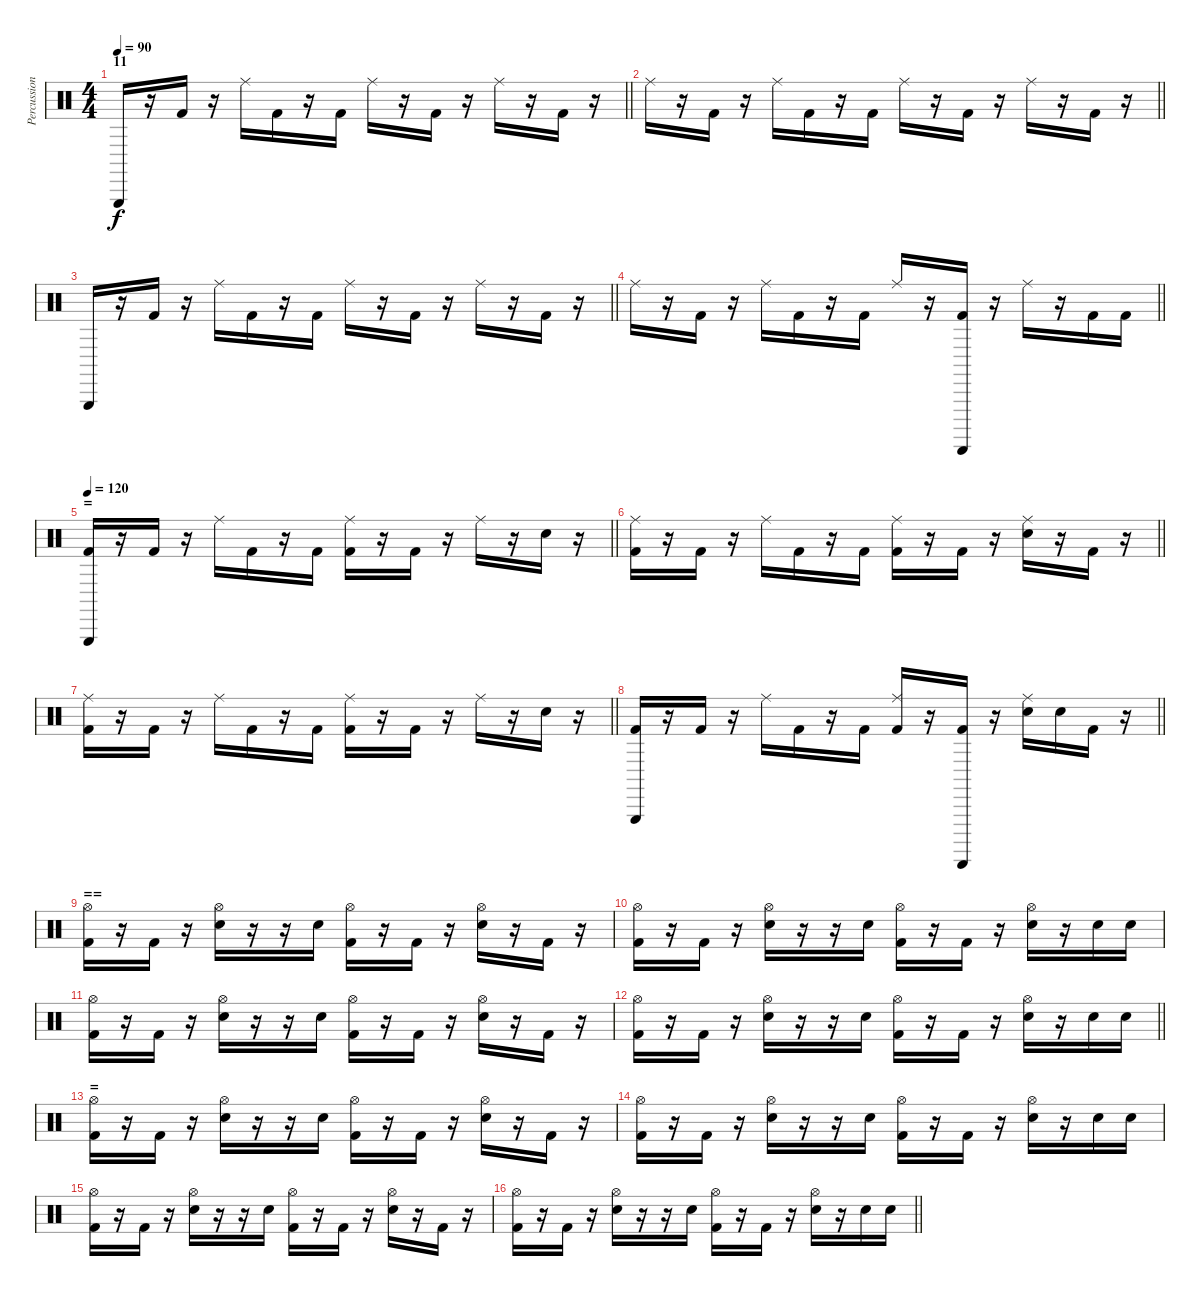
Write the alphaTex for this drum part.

\track ("Percussion" "Percussion") {instrument percussion}
\staff {score}
\articulation defaults
\ts (4 4)
\section ("" "11")
\tempo 90
\clef neutral
\barLineRight lightlight
\ks c "Triangle (hit)".16{dy f}
r.16 "Kick (hit) 2".16 r.16 "Ride (middle)".16 "Kick (hit) 2".16 r.16 "Kick (hit) 2".16 "Ride (middle)".16 r.16 "Kick (hit) 2".16 r.16 "Ride (middle)".16 r.16 "Kick (hit) 2".16 r.16 |
\barLineRight lightlight "Ride (middle)".16
r.16 "Kick (hit) 2".16 r.16 "Ride (middle)".16 "Kick (hit) 2".16 r.16 "Kick (hit) 2".16 "Ride (middle)".16 r.16 "Kick (hit) 2".16 r.16 "Ride (middle)".16 r.16 "Kick (hit) 2".16 r.16 |
\barLineRight lightlight "Triangle (hit)".16
r.16 "Kick (hit) 2".16 r.16 "Ride (middle)".16 "Kick (hit) 2".16 r.16 "Kick (hit) 2".16 "Ride (middle)".16 r.16 "Kick (hit) 2".16 r.16 "Ride (middle)".16 r.16 "Kick (hit) 2".16 r.16 |
\barLineRight lightlight "Ride (middle)".16
r.16 "Kick (hit) 2".16 r.16 "Ride (middle)".16 "Kick (hit) 2".16 r.16 "Kick (hit) 2".16 "Ride (middle)".16 r.16 ("Kick (hit) 2" "Guiro (scrap-return)").16 r.16 "Ride (middle)".16 r.16 "Kick (hit) 2".16 "Kick (hit) 2".16 |
\section ("" "=")
\tempo 120
\barLineRight lightlight
("Kick (hit) 2" "Triangle (hit)").16 r.16 "Kick (hit) 2".16 r.16 "Ride (middle)".16 "Kick (hit) 2".16 r.16 "Kick (hit) 2".16 ("Kick (hit) 2" "Ride (middle)").16 r.16 "Kick (hit) 2".16 r.16 "Ride (middle)".16 r.16 "Electric Snare (hit)".16 r.16 |
\barLineRight lightlight
("Kick (hit) 2" "Ride (middle)").16 r.16 "Kick (hit) 2".16 r.16 "Ride (middle)".16 "Kick (hit) 2".16 r.16 "Kick (hit) 2".16 ("Kick (hit) 2" "Ride (middle)").16 r.16 "Kick (hit) 2".16 r.16 ("Electric Snare (hit)" "Ride (middle)").16 r.16 "Kick (hit) 2".16 r.16 |
\barLineRight lightlight
("Kick (hit) 2" "Ride (middle)").16 r.16 "Kick (hit) 2".16 r.16 "Ride (middle)".16 "Kick (hit) 2".16 r.16 "Kick (hit) 2".16 ("Kick (hit) 2" "Ride (middle)").16 r.16 "Kick (hit) 2".16 r.16 "Ride (middle)".16 r.16 "Electric Snare (hit)".16 r.16 |
\barLineRight lightlight
("Kick (hit) 2" "Triangle (hit)").16 r.16 "Kick (hit) 2".16 r.16 "Ride (middle)".16 "Kick (hit) 2".16 r.16 "Kick (hit) 2".16 ("Kick (hit) 2" "Ride (middle)").16 r.16 ("Kick (hit) 2" "Guiro (scrap-return)").16 r.16 ("Electric Snare (hit)" "Ride (middle)").16 "Electric Snare (hit)".16 "Kick (hit) 2".16 r.16 |
\section ("" "==")
("Kick (hit) 2" "Hi-Hat (open)").16 r.16 "Kick (hit) 2".16 r.16 ("Electric Snare (hit)" "Hi-Hat (open)").16 r.16 r.16 "Electric Snare (hit)".16 ("Kick (hit) 2" "Hi-Hat (open)").16 r.16 "Kick (hit) 2".16 r.16 ("Electric Snare (hit)" "Hi-Hat (open)").16 r.16 "Kick (hit) 2".16 r.16 |
("Kick (hit) 2" "Hi-Hat (open)").16 r.16 "Kick (hit) 2".16 r.16 ("Electric Snare (hit)" "Hi-Hat (open)").16 r.16 r.16 "Electric Snare (hit)".16 ("Kick (hit) 2" "Hi-Hat (open)").16 r.16 "Kick (hit) 2".16 r.16 ("Electric Snare (hit)" "Hi-Hat (open)").16 r.16 "Electric Snare (hit)".16 "Electric Snare (hit)".16 |
("Kick (hit) 2" "Hi-Hat (open)").16 r.16 "Kick (hit) 2".16 r.16 ("Electric Snare (hit)" "Hi-Hat (open)").16 r.16 r.16 "Electric Snare (hit)".16 ("Kick (hit) 2" "Hi-Hat (open)").16 r.16 "Kick (hit) 2".16 r.16 ("Electric Snare (hit)" "Hi-Hat (open)").16 r.16 "Kick (hit) 2".16 r.16 |
\barLineRight lightlight
("Kick (hit) 2" "Hi-Hat (open)").16 r.16 "Kick (hit) 2".16 r.16 ("Electric Snare (hit)" "Hi-Hat (open)").16 r.16 r.16 "Electric Snare (hit)".16 ("Kick (hit) 2" "Hi-Hat (open)").16 r.16 "Kick (hit) 2".16 r.16 ("Electric Snare (hit)" "Hi-Hat (open)").16 r.16 "Electric Snare (hit)".16 "Electric Snare (hit)".16 |
\section ("" "=")
("Kick (hit) 2" "Hi-Hat (open)").16 r.16 "Kick (hit) 2".16 r.16 ("Electric Snare (hit)" "Hi-Hat (open)").16 r.16 r.16 "Electric Snare (hit)".16 ("Kick (hit) 2" "Hi-Hat (open)").16 r.16 "Kick (hit) 2".16 r.16 ("Electric Snare (hit)" "Hi-Hat (open)").16 r.16 "Kick (hit) 2".16 r.16 |
("Kick (hit) 2" "Hi-Hat (open)").16 r.16 "Kick (hit) 2".16 r.16 ("Electric Snare (hit)" "Hi-Hat (open)").16 r.16 r.16 "Electric Snare (hit)".16 ("Kick (hit) 2" "Hi-Hat (open)").16 r.16 "Kick (hit) 2".16 r.16 ("Electric Snare (hit)" "Hi-Hat (open)").16 r.16 "Electric Snare (hit)".16 "Electric Snare (hit)".16 |
("Kick (hit) 2" "Hi-Hat (open)").16 r.16 "Kick (hit) 2".16 r.16 ("Electric Snare (hit)" "Hi-Hat (open)").16 r.16 r.16 "Electric Snare (hit)".16 ("Kick (hit) 2" "Hi-Hat (open)").16 r.16 "Kick (hit) 2".16 r.16 ("Electric Snare (hit)" "Hi-Hat (open)").16 r.16 "Kick (hit) 2".16 r.16 |
\barLineRight lightlight
("Kick (hit) 2" "Hi-Hat (open)").16 r.16 "Kick (hit) 2".16 r.16 ("Electric Snare (hit)" "Hi-Hat (open)").16 r.16 r.16 "Electric Snare (hit)".16 ("Kick (hit) 2" "Hi-Hat (open)").16 r.16 "Kick (hit) 2".16 r.16 ("Electric Snare (hit)" "Hi-Hat (open)").16 r.16 "Electric Snare (hit)".16 "Electric Snare (hit)".16
